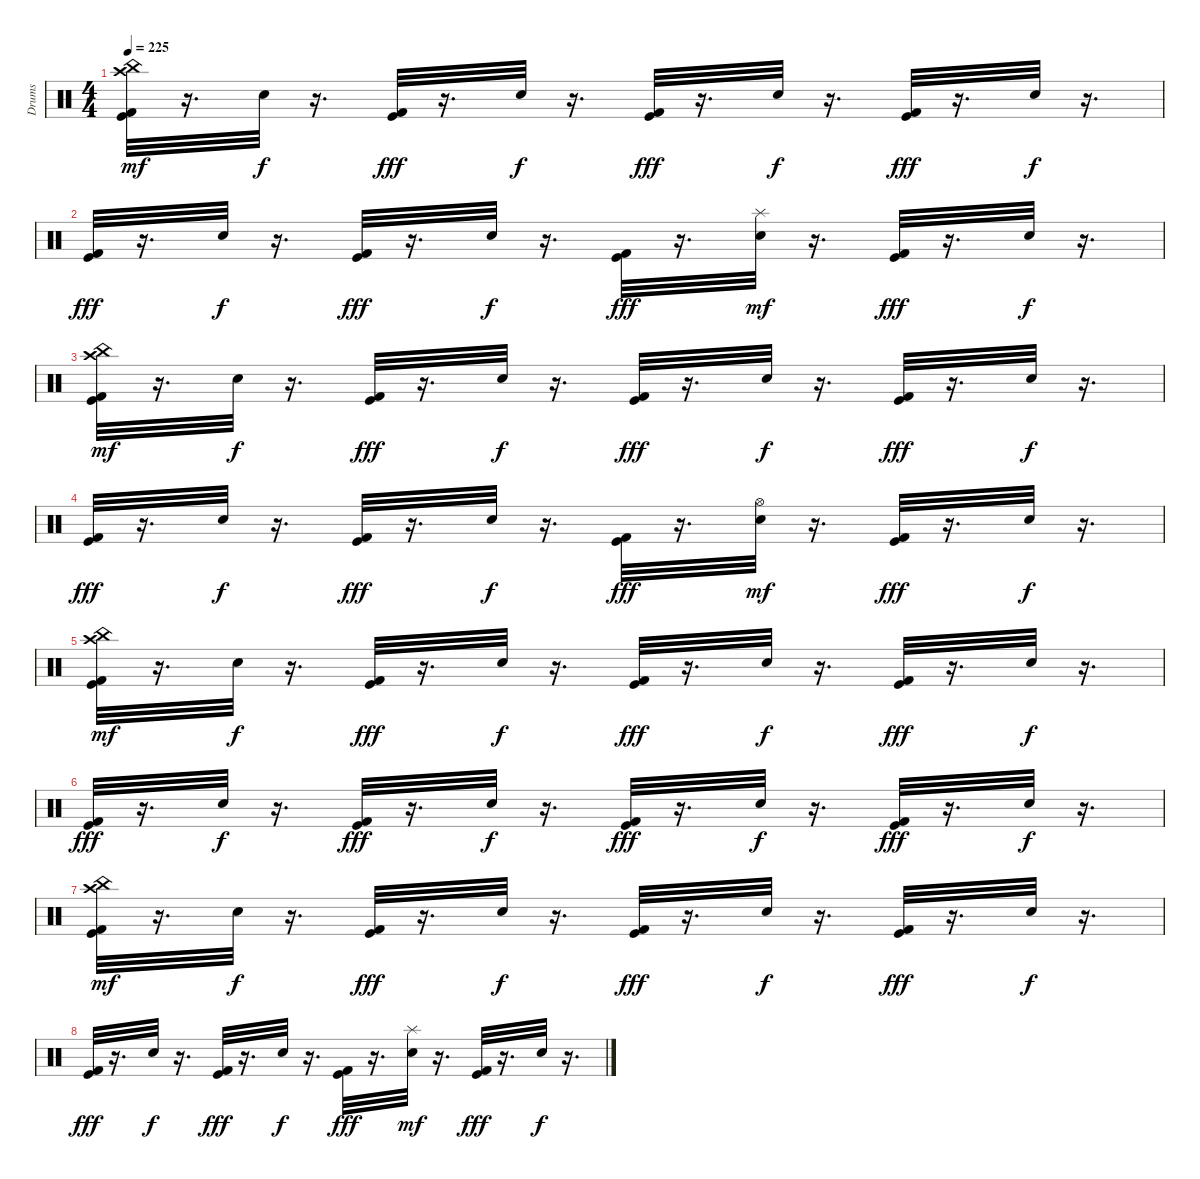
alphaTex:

\track ("Drums" "Drums") {instrument percussion}
\staff {score}
\articulation defaults
\ts (4 4)
\tempo 225
\clef neutral
\ks c
("Kick (hit) 2" "Kick (hit)" "Crash high (hit)" "China (hit)").32{dy mf} r.16{d} "Snare (hit) 2".32{dy f} r.16{d} ("Kick (hit) 2" "Kick (hit)").32{dy fff} r.16{d} "Snare (hit) 2".32{dy f} r.16{d} ("Kick (hit) 2" "Kick (hit)").32{dy fff} r.16{d} "Snare (hit) 2".32{dy f} r.16{d} ("Kick (hit) 2" "Kick (hit)").32{dy fff} r.16{d} "Snare (hit) 2".32{dy f} r.16{d} |
("Kick (hit) 2" "Kick (hit)").32{dy fff} r.16{d} "Snare (hit) 2".32{dy f} r.16{d} ("Kick (hit) 2" "Kick (hit)").32{dy fff} r.16{d} "Snare (hit) 2".32{dy f} r.16{d} ("Kick (hit) 2" "Kick (hit)").32{dy fff} r.16{d} ("Snare (hit) 2" "Splash (hit)").32{dy mf} r.16{d} ("Kick (hit) 2" "Kick (hit)").32{dy fff} r.16{d} "Snare (hit) 2".32{dy f} r.16{d} |
("Kick (hit) 2" "Kick (hit)" "Crash high (hit)" "China (hit)").32{dy mf} r.16{d} "Snare (hit) 2".32{dy f} r.16{d} ("Kick (hit) 2" "Kick (hit)").32{dy fff} r.16{d} "Snare (hit) 2".32{dy f} r.16{d} ("Kick (hit) 2" "Kick (hit)").32{dy fff} r.16{d} "Snare (hit) 2".32{dy f} r.16{d} ("Kick (hit) 2" "Kick (hit)").32{dy fff} r.16{d} "Snare (hit) 2".32{dy f} r.16{d} |
("Kick (hit) 2" "Kick (hit)").32{dy fff} r.16{d} "Snare (hit) 2".32{dy f} r.16{d} ("Kick (hit) 2" "Kick (hit)").32{dy fff} r.16{d} "Snare (hit) 2".32{dy f} r.16{d} ("Kick (hit) 2" "Kick (hit)").32{dy fff} r.16{d} ("Snare (hit) 2" "Hi-Hat (open)").32{dy mf} r.16{d} ("Kick (hit) 2" "Kick (hit)").32{dy fff} r.16{d} "Snare (hit) 2".32{dy f} r.16{d} |
("Kick (hit) 2" "Kick (hit)" "Crash high (hit)" "China (hit)").32{dy mf} r.16{d} "Snare (hit) 2".32{dy f} r.16{d} ("Kick (hit) 2" "Kick (hit)").32{dy fff} r.16{d} "Snare (hit) 2".32{dy f} r.16{d} ("Kick (hit) 2" "Kick (hit)").32{dy fff} r.16{d} "Snare (hit) 2".32{dy f} r.16{d} ("Kick (hit) 2" "Kick (hit)").32{dy fff} r.16{d} "Snare (hit) 2".32{dy f} r.16{d} |
("Kick (hit) 2" "Kick (hit)").32{dy fff} r.16{d} "Snare (hit) 2".32{dy f} r.16{d} ("Kick (hit) 2" "Kick (hit)").32{dy fff} r.16{d} "Snare (hit) 2".32{dy f} r.16{d} ("Kick (hit) 2" "Kick (hit)").32{dy fff} r.16{d} "Snare (hit) 2".32{dy f} r.16{d} ("Kick (hit) 2" "Kick (hit)").32{dy fff} r.16{d} "Snare (hit) 2".32{dy f} r.16{d} |
("Kick (hit) 2" "Kick (hit)" "Crash high (hit)" "China (hit)").32{dy mf} r.16{d} "Snare (hit) 2".32{dy f} r.16{d} ("Kick (hit) 2" "Kick (hit)").32{dy fff} r.16{d} "Snare (hit) 2".32{dy f} r.16{d} ("Kick (hit) 2" "Kick (hit)").32{dy fff} r.16{d} "Snare (hit) 2".32{dy f} r.16{d} ("Kick (hit) 2" "Kick (hit)").32{dy fff} r.16{d} "Snare (hit) 2".32{dy f} r.16{d} |
("Kick (hit) 2" "Kick (hit)").32{dy fff} r.16{d} "Snare (hit) 2".32{dy f} r.16{d} ("Kick (hit) 2" "Kick (hit)").32{dy fff} r.16{d} "Snare (hit) 2".32{dy f} r.16{d} ("Kick (hit) 2" "Kick (hit)").32{dy fff} r.16{d} ("Snare (hit) 2" "Splash (hit)").32{dy mf} r.16{d} ("Kick (hit) 2" "Kick (hit)").32{dy fff} r.16{d} "Snare (hit) 2".32{dy f} r.16{d}
